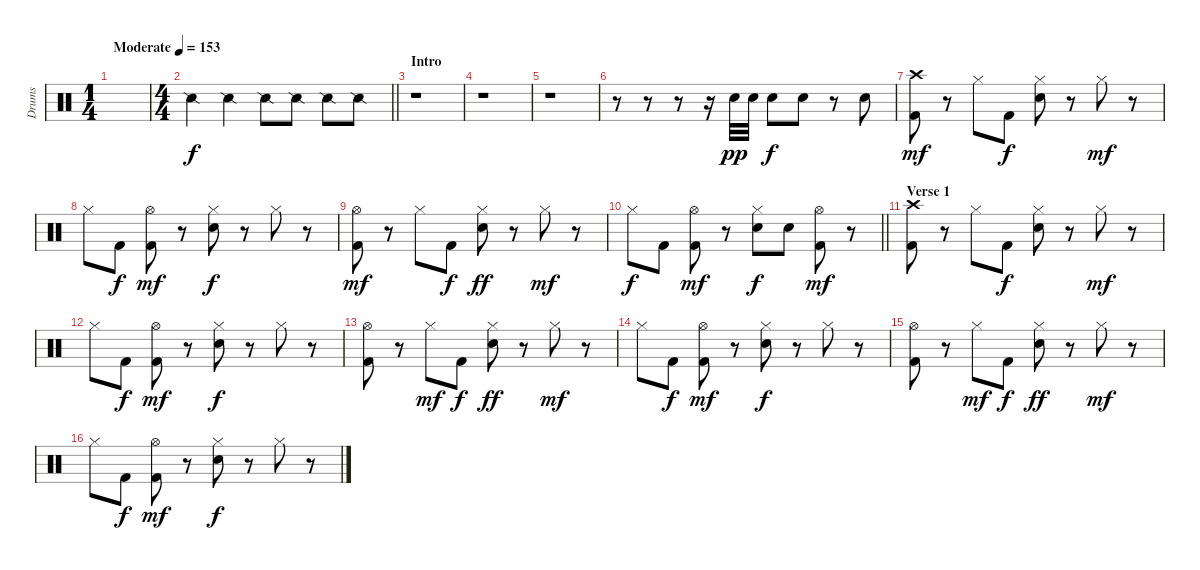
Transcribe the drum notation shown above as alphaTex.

\track ("Drums" "Drums") {instrument percussion}
\staff {score}
\articulation defaults
\ts (1 4)
\tempo (153 "Moderate")
\clef neutral
\ks c
|
\ts (4 4)
\barLineRight lightlight "Snare (side stick) 2".4 "Snare (side stick) 2".4 "Snare (side stick) 2".8 "Snare (side stick) 2".8 "Snare (side stick) 2".8 "Snare (side stick) 2".8
|
\section ("" "Intro")
r.1 |
r.1 |
r.1 |
r.8 r.8 r.8 r.16 "Electric Snare (hit)".32{dy pp} "Electric Snare (hit)".32 "Electric Snare (hit)".8{dy f} "Electric Snare (hit)".8 r.8 "Electric Snare (hit)".8 |
("Crash high (hit)" "Kick (hit) 2").8{dy mf} r.8 "Hi-Hat (closed)".8 "Kick (hit) 2".8{dy f} ("Hi-Hat (closed)" "Electric Snare (hit)").8 r.8 "Hi-Hat (closed)".8{dy mf} r.8 |
"Hi-Hat (closed)".8 "Kick (hit) 2".8{dy f} ("Hi-Hat (open)" "Kick (hit) 2").8{dy mf} r.8 ("Hi-Hat (closed)" "Electric Snare (hit)").8{dy f} r.8 "Hi-Hat (closed)".8 r.8 |
("Hi-Hat (open)" "Kick (hit) 2").8{dy mf} r.8 "Hi-Hat (closed)".8 "Kick (hit) 2".8{dy f} ("Hi-Hat (closed)" "Electric Snare (hit)").8{dy ff} r.8 "Hi-Hat (closed)".8{dy mf} r.8 |
\barLineRight lightlight "Hi-Hat (closed)".8{dy f} "Kick (hit) 2".8
("Hi-Hat (open)" "Kick (hit) 2").8{dy mf} r.8 ("Hi-Hat (closed)" "Electric Snare (hit)").8{dy f} "Electric Snare (hit)".8 ("Hi-Hat (open)" "Kick (hit) 2").8{dy mf} r.8 |
\section ("" "Verse 1")
("Crash high (hit)" "Kick (hit) 2").8 r.8 "Hi-Hat (closed)".8 "Kick (hit) 2".8{dy f} ("Hi-Hat (closed)" "Electric Snare (hit)").8 r.8 "Hi-Hat (closed)".8{dy mf} r.8 |
"Hi-Hat (closed)".8 "Kick (hit) 2".8{dy f} ("Hi-Hat (open)" "Kick (hit) 2").8{dy mf} r.8 ("Hi-Hat (closed)" "Electric Snare (hit)").8{dy f} r.8 "Hi-Hat (closed)".8 r.8 |
("Hi-Hat (open)" "Kick (hit) 2").8 r.8 "Hi-Hat (closed)".8{dy mf} "Kick (hit) 2".8{dy f} ("Hi-Hat (closed)" "Electric Snare (hit)").8{dy ff} r.8 "Hi-Hat (closed)".8{dy mf} r.8 |
"Hi-Hat (closed)".8 "Kick (hit) 2".8{dy f} ("Hi-Hat (open)" "Kick (hit) 2").8{dy mf} r.8 ("Hi-Hat (closed)" "Electric Snare (hit)").8{dy f} r.8 "Hi-Hat (closed)".8 r.8 |
("Hi-Hat (open)" "Kick (hit) 2").8 r.8 "Hi-Hat (closed)".8{dy mf} "Kick (hit) 2".8{dy f} ("Hi-Hat (closed)" "Electric Snare (hit)").8{dy ff} r.8 "Hi-Hat (closed)".8{dy mf} r.8 |
"Hi-Hat (closed)".8 "Kick (hit) 2".8{dy f} ("Hi-Hat (open)" "Kick (hit) 2").8{dy mf} r.8 ("Hi-Hat (closed)" "Electric Snare (hit)").8{dy f} r.8 "Hi-Hat (closed)".8 r.8
